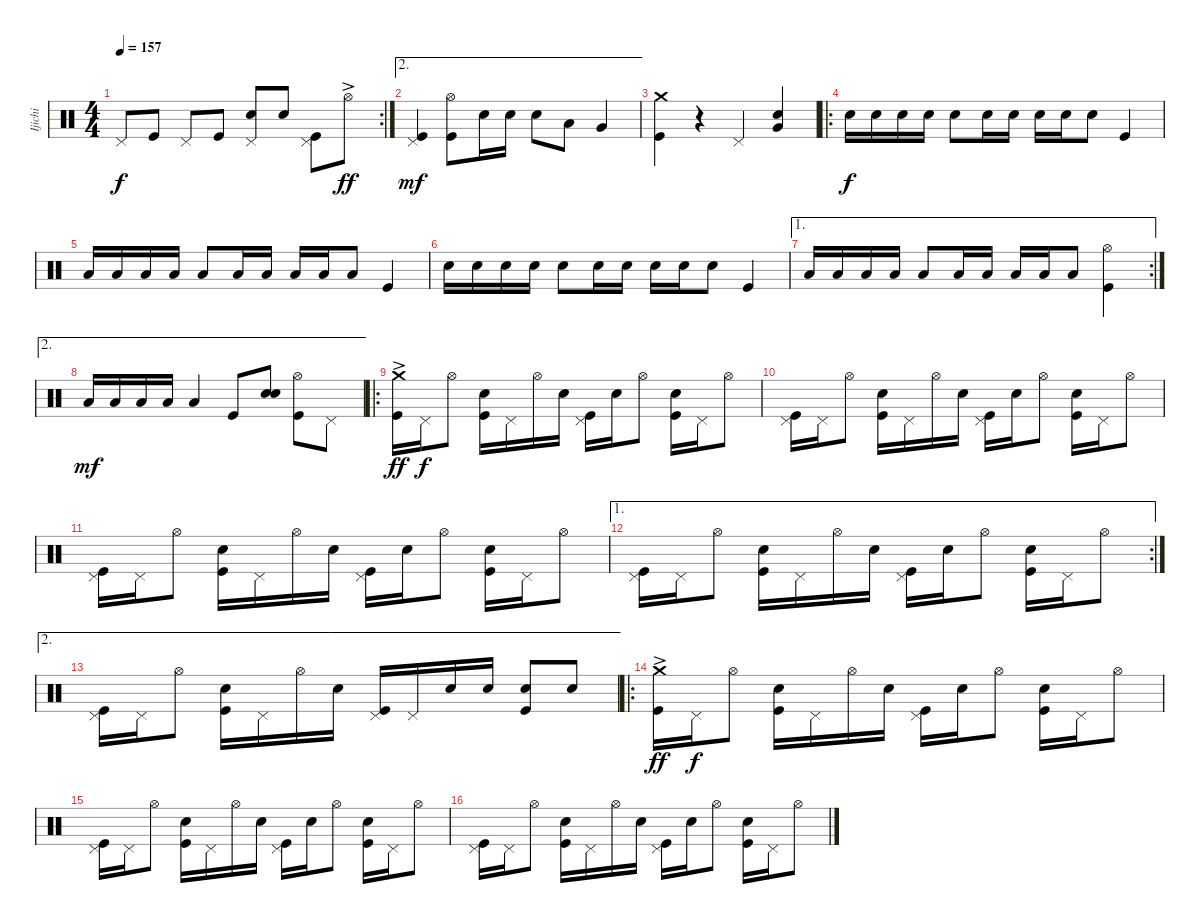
\track ("Ijichi" "Ijichi") {instrument percussion}
\staff {score}
\articulation defaults
\rc 2
\ts (4 4)
\tempo 157
\clef neutral
\ks c "Pedal Hi-Hat (hit)".8{dy f} "Kick (hit)".8 "Pedal Hi-Hat (hit)".8 "Kick (hit)".8
("Pedal Hi-Hat (hit)" "Snare (hit) 2").8 "Snare (hit) 2".8 ("Pedal Hi-Hat (hit)" "Kick (hit)").8 "Hi-Hat (open)"{ac}.8{dy ff} |
\ae 2
("Pedal Hi-Hat (hit)" "Kick (hit)").4{dy mf} ("Hi-Hat (open)" "Kick (hit)").8 "Snare (hit) 2".16 "Snare (hit) 2".16 "Snare (hit) 2".8 "Low Tom (hit)".8 "Very Low Tom (hit)".4 |
("Crash medium (hit)" "Kick (hit)").4 r.4 "Pedal Hi-Hat (hit)".4 ("Snare (hit) 2" "Very Low Tom (hit)").4 |
\ro "Snare (hit) 2".16{dy f} "Snare (hit) 2".16 "Snare (hit) 2".16 "Snare (hit) 2".16 "Snare (hit) 2".8 "Snare (hit) 2".16 "Snare (hit) 2".16 "Snare (hit) 2".16 "Snare (hit) 2".16 "Snare (hit) 2".8 "Kick (hit)".4
|
"Low Tom (hit)".16 "Low Tom (hit)".16 "Low Tom (hit)".16 "Low Tom (hit)".16 "Low Tom (hit)".8 "Low Tom (hit)".16 "Low Tom (hit)".16 "Low Tom (hit)".16 "Low Tom (hit)".16 "Low Tom (hit)".8 "Kick (hit)".4 |
"Snare (hit) 2".16 "Snare (hit) 2".16 "Snare (hit) 2".16 "Snare (hit) 2".16 "Snare (hit) 2".8 "Snare (hit) 2".16 "Snare (hit) 2".16 "Snare (hit) 2".16 "Snare (hit) 2".16 "Snare (hit) 2".8 "Kick (hit)".4 |
\ae 1
\rc 2 "Low Tom (hit)".16 "Low Tom (hit)".16 "Low Tom (hit)".16 "Low Tom (hit)".16 "Low Tom (hit)".8 "Low Tom (hit)".16 "Low Tom (hit)".16 "Low Tom (hit)".16 "Low Tom (hit)".16 "Low Tom (hit)".8
("Hi-Hat (open)" "Kick (hit)").4 |
\ae 2 "Low Tom (hit)".16{dy mf} "Low Tom (hit)".16 "Low Tom (hit)".16 "Low Tom (hit)".16 "Low Tom (hit)".4 "Kick (hit)".8
("Snare (hit) 2" "Snare (hit) 2").8 ("Hi-Hat (open)" "Kick (hit)").8 "Pedal Hi-Hat (hit)".8 |
\ro
("Crash medium (hit)"{ac} "Kick (hit)").16{dy ff} "Pedal Hi-Hat (hit)".16{dy f} "Hi-Hat (open)".8 ("Snare (hit) 2" "Kick (hit)").16 "Pedal Hi-Hat (hit)".16 "Hi-Hat (open)".16 "Snare (hit) 2".16 ("Pedal Hi-Hat (hit)" "Kick (hit)").16 "Snare (hit) 2".16 "Hi-Hat (open)".8 ("Snare (hit) 2" "Kick (hit)").16 "Pedal Hi-Hat (hit)".16 "Hi-Hat (open)".8 |
("Pedal Hi-Hat (hit)" "Kick (hit)").16 "Pedal Hi-Hat (hit)".16 "Hi-Hat (open)".8 ("Snare (hit) 2" "Kick (hit)").16 "Pedal Hi-Hat (hit)".16 "Hi-Hat (open)".16 "Snare (hit) 2".16 ("Pedal Hi-Hat (hit)" "Kick (hit)").16 "Snare (hit) 2".16 "Hi-Hat (open)".8 ("Snare (hit) 2" "Kick (hit)").16 "Pedal Hi-Hat (hit)".16 "Hi-Hat (open)".8 |
("Pedal Hi-Hat (hit)" "Kick (hit)").16 "Pedal Hi-Hat (hit)".16 "Hi-Hat (open)".8 ("Snare (hit) 2" "Kick (hit)").16 "Pedal Hi-Hat (hit)".16 "Hi-Hat (open)".16 "Snare (hit) 2".16 ("Pedal Hi-Hat (hit)" "Kick (hit)").16 "Snare (hit) 2".16 "Hi-Hat (open)".8 ("Snare (hit) 2" "Kick (hit)").16 "Pedal Hi-Hat (hit)".16 "Hi-Hat (open)".8 |
\ae 1
\rc 2
("Pedal Hi-Hat (hit)" "Kick (hit)").16 "Pedal Hi-Hat (hit)".16 "Hi-Hat (open)".8 ("Snare (hit) 2" "Kick (hit)").16 "Pedal Hi-Hat (hit)".16 "Hi-Hat (open)".16 "Snare (hit) 2".16 ("Pedal Hi-Hat (hit)" "Kick (hit)").16 "Snare (hit) 2".16 "Hi-Hat (open)".8 ("Snare (hit) 2" "Kick (hit)").16 "Pedal Hi-Hat (hit)".16 "Hi-Hat (open)".8 |
\ae 2
("Pedal Hi-Hat (hit)" "Kick (hit)").16 "Pedal Hi-Hat (hit)".16 "Hi-Hat (open)".8 ("Snare (hit) 2" "Kick (hit)").16 "Pedal Hi-Hat (hit)".16 "Hi-Hat (open)".16 "Snare (hit) 2".16 ("Pedal Hi-Hat (hit)" "Kick (hit)").16 "Pedal Hi-Hat (hit)".16 "Snare (hit) 2".16 "Snare (hit) 2".16 ("Snare (hit) 2" "Kick (hit)").8 "Snare (hit) 2".8 |
\ro
("Crash medium (hit)"{ac} "Kick (hit)").16{dy ff} "Pedal Hi-Hat (hit)".16{dy f} "Hi-Hat (open)".8 ("Snare (hit) 2" "Kick (hit)").16 "Pedal Hi-Hat (hit)".16 "Hi-Hat (open)".16 "Snare (hit) 2".16 ("Pedal Hi-Hat (hit)" "Kick (hit)").16 "Snare (hit) 2".16 "Hi-Hat (open)".8 ("Snare (hit) 2" "Kick (hit)").16 "Pedal Hi-Hat (hit)".16 "Hi-Hat (open)".8 |
("Pedal Hi-Hat (hit)" "Kick (hit)").16 "Pedal Hi-Hat (hit)".16 "Hi-Hat (open)".8 ("Snare (hit) 2" "Kick (hit)").16 "Pedal Hi-Hat (hit)".16 "Hi-Hat (open)".16 "Snare (hit) 2".16 ("Pedal Hi-Hat (hit)" "Kick (hit)").16 "Snare (hit) 2".16 "Hi-Hat (open)".8 ("Snare (hit) 2" "Kick (hit)").16 "Pedal Hi-Hat (hit)".16 "Hi-Hat (open)".8 |
("Pedal Hi-Hat (hit)" "Kick (hit)").16 "Pedal Hi-Hat (hit)".16 "Hi-Hat (open)".8 ("Snare (hit) 2" "Kick (hit)").16 "Pedal Hi-Hat (hit)".16 "Hi-Hat (open)".16 "Snare (hit) 2".16 ("Pedal Hi-Hat (hit)" "Kick (hit)").16 "Snare (hit) 2".16 "Hi-Hat (open)".8 ("Snare (hit) 2" "Kick (hit)").16 "Pedal Hi-Hat (hit)".16 "Hi-Hat (open)".8
